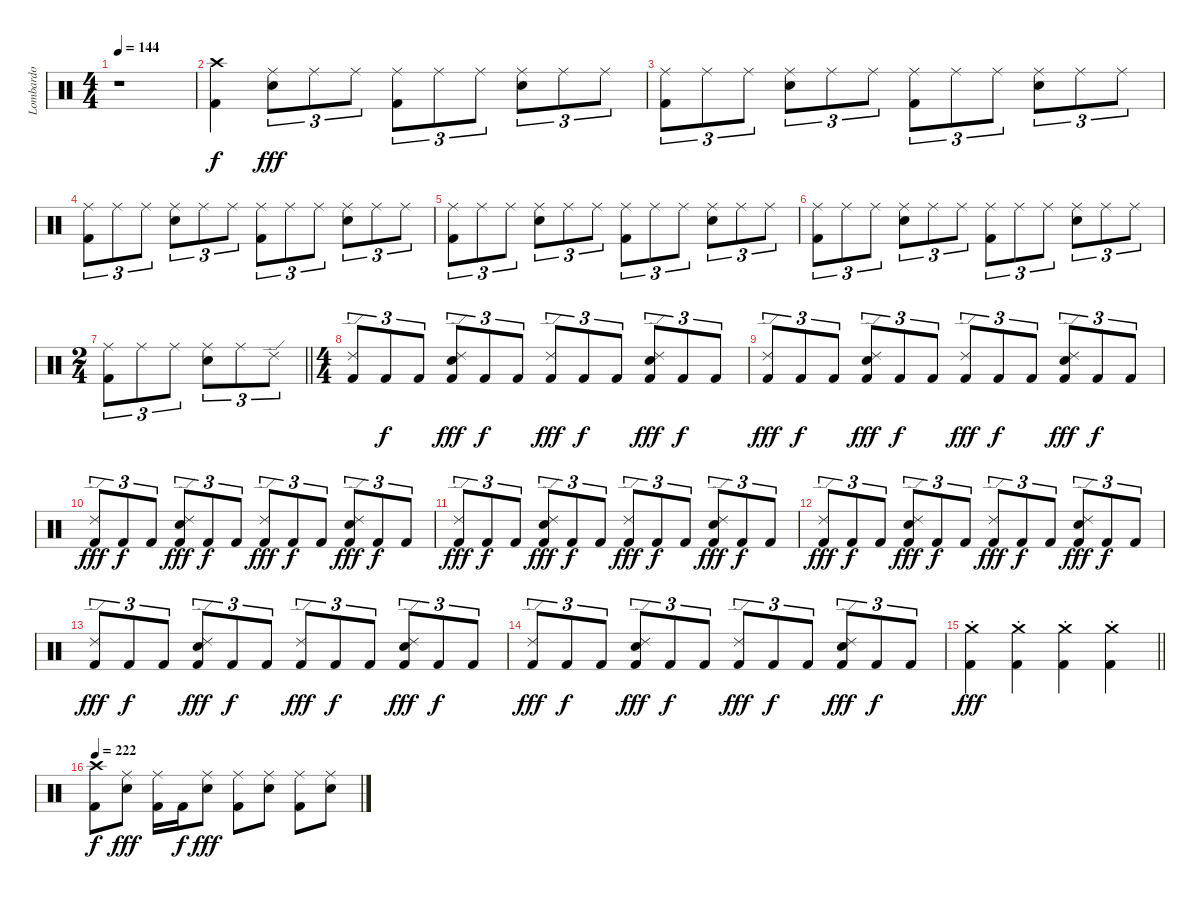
\track ("Lombardo" "Lombardo") {instrument percussion}
\staff {score}
\articulation defaults
\ts (4 4)
\tempo 144
\clef neutral
\ks c
r.1{dy f} |
("Crash high (hit)" "Kick (hit) 2").4 ("Ride (middle)" "Snare (hit) 2").8{tu (3 2) dy fff} "Ride (middle)".8{tu (3 2)} "Ride (middle)".8{tu (3 2)} ("Ride (middle)" "Kick (hit) 2").8{tu (3 2)} "Ride (middle)".8{tu (3 2)} "Ride (middle)".8{tu (3 2)} ("Ride (middle)" "Snare (hit) 2").8{tu (3 2)} "Ride (middle)".8{tu (3 2)} "Ride (middle)".8{tu (3 2)} |
("Ride (middle)" "Kick (hit) 2").8{tu (3 2)} "Ride (middle)".8{tu (3 2)} "Ride (middle)".8{tu (3 2)} ("Ride (middle)" "Snare (hit) 2").8{tu (3 2)} "Ride (middle)".8{tu (3 2)} "Ride (middle)".8{tu (3 2)} ("Ride (middle)" "Kick (hit) 2").8{tu (3 2)} "Ride (middle)".8{tu (3 2)} "Ride (middle)".8{tu (3 2)} ("Ride (middle)" "Snare (hit) 2").8{tu (3 2)} "Ride (middle)".8{tu (3 2)} "Ride (middle)".8{tu (3 2)} |
("Ride (middle)" "Kick (hit) 2").8{tu (3 2)} "Ride (middle)".8{tu (3 2)} "Ride (middle)".8{tu (3 2)} ("Ride (middle)" "Snare (hit) 2").8{tu (3 2)} "Ride (middle)".8{tu (3 2)} "Ride (middle)".8{tu (3 2)} ("Ride (middle)" "Kick (hit) 2").8{tu (3 2)} "Ride (middle)".8{tu (3 2)} "Ride (middle)".8{tu (3 2)} ("Ride (middle)" "Snare (hit) 2").8{tu (3 2)} "Ride (middle)".8{tu (3 2)} "Ride (middle)".8{tu (3 2)} |
("Ride (middle)" "Kick (hit) 2").8{tu (3 2)} "Ride (middle)".8{tu (3 2)} "Ride (middle)".8{tu (3 2)} ("Ride (middle)" "Snare (hit) 2").8{tu (3 2)} "Ride (middle)".8{tu (3 2)} "Ride (middle)".8{tu (3 2)} ("Ride (middle)" "Kick (hit) 2").8{tu (3 2)} "Ride (middle)".8{tu (3 2)} "Ride (middle)".8{tu (3 2)} ("Ride (middle)" "Snare (hit) 2").8{tu (3 2)} "Ride (middle)".8{tu (3 2)} "Ride (middle)".8{tu (3 2)} |
("Ride (middle)" "Kick (hit) 2").8{tu (3 2)} "Ride (middle)".8{tu (3 2)} "Ride (middle)".8{tu (3 2)} ("Ride (middle)" "Snare (hit) 2").8{tu (3 2)} "Ride (middle)".8{tu (3 2)} "Ride (middle)".8{tu (3 2)} ("Ride (middle)" "Kick (hit) 2").8{tu (3 2)} "Ride (middle)".8{tu (3 2)} "Ride (middle)".8{tu (3 2)} ("Ride (middle)" "Snare (hit) 2").8{tu (3 2)} "Ride (middle)".8{tu (3 2)} "Ride (middle)".8{tu (3 2)} |
\ts (2 4)
\barLineRight lightlight
("Ride (middle)" "Kick (hit) 2").8{tu (3 2)} "Ride (middle)".8{tu (3 2)} "Ride (middle)".8{tu (3 2)} ("Ride (middle)" "Snare (hit) 2").8{tu (3 2)} "Ride (middle)".8{tu (3 2)} "Ride (edge) 2".8{tu (3 2)} |
\ts (4 4)
("Ride (edge) 2" "Kick (hit) 2").8{tu (3 2)} "Kick (hit) 2".8{tu (3 2) dy f} "Kick (hit) 2".8{tu (3 2)} ("Ride (edge) 2" "Snare (hit) 2" "Kick (hit) 2").8{tu (3 2) dy fff} "Kick (hit) 2".8{tu (3 2) dy f} "Kick (hit) 2".8{tu (3 2)} ("Ride (edge) 2" "Kick (hit) 2").8{tu (3 2) dy fff} "Kick (hit) 2".8{tu (3 2) dy f} "Kick (hit) 2".8{tu (3 2)} ("Ride (edge) 2" "Snare (hit) 2" "Kick (hit) 2").8{tu (3 2) dy fff} "Kick (hit) 2".8{tu (3 2) dy f} "Kick (hit) 2".8{tu (3 2)} |
("Ride (edge) 2" "Kick (hit) 2").8{tu (3 2) dy fff} "Kick (hit) 2".8{tu (3 2) dy f} "Kick (hit) 2".8{tu (3 2)} ("Ride (edge) 2" "Snare (hit) 2" "Kick (hit) 2").8{tu (3 2) dy fff} "Kick (hit) 2".8{tu (3 2) dy f} "Kick (hit) 2".8{tu (3 2)} ("Ride (edge) 2" "Kick (hit) 2").8{tu (3 2) dy fff} "Kick (hit) 2".8{tu (3 2) dy f} "Kick (hit) 2".8{tu (3 2)} ("Ride (edge) 2" "Snare (hit) 2" "Kick (hit) 2").8{tu (3 2) dy fff} "Kick (hit) 2".8{tu (3 2) dy f} "Kick (hit) 2".8{tu (3 2)} |
("Ride (edge) 2" "Kick (hit) 2").8{tu (3 2) dy fff} "Kick (hit) 2".8{tu (3 2) dy f} "Kick (hit) 2".8{tu (3 2)} ("Ride (edge) 2" "Snare (hit) 2" "Kick (hit) 2").8{tu (3 2) dy fff} "Kick (hit) 2".8{tu (3 2) dy f} "Kick (hit) 2".8{tu (3 2)} ("Ride (edge) 2" "Kick (hit) 2").8{tu (3 2) dy fff} "Kick (hit) 2".8{tu (3 2) dy f} "Kick (hit) 2".8{tu (3 2)} ("Ride (edge) 2" "Snare (hit) 2" "Kick (hit) 2").8{tu (3 2) dy fff} "Kick (hit) 2".8{tu (3 2) dy f} "Kick (hit) 2".8{tu (3 2)} |
("Ride (edge) 2" "Kick (hit) 2").8{tu (3 2) dy fff} "Kick (hit) 2".8{tu (3 2) dy f} "Kick (hit) 2".8{tu (3 2)} ("Ride (edge) 2" "Snare (hit) 2" "Kick (hit) 2").8{tu (3 2) dy fff} "Kick (hit) 2".8{tu (3 2) dy f} "Kick (hit) 2".8{tu (3 2)} ("Ride (edge) 2" "Kick (hit) 2").8{tu (3 2) dy fff} "Kick (hit) 2".8{tu (3 2) dy f} "Kick (hit) 2".8{tu (3 2)} ("Ride (edge) 2" "Snare (hit) 2" "Kick (hit) 2").8{tu (3 2) dy fff} "Kick (hit) 2".8{tu (3 2) dy f} "Kick (hit) 2".8{tu (3 2)} |
("Ride (edge) 2" "Kick (hit) 2").8{tu (3 2) dy fff} "Kick (hit) 2".8{tu (3 2) dy f} "Kick (hit) 2".8{tu (3 2)} ("Ride (edge) 2" "Snare (hit) 2" "Kick (hit) 2").8{tu (3 2) dy fff} "Kick (hit) 2".8{tu (3 2) dy f} "Kick (hit) 2".8{tu (3 2)} ("Ride (edge) 2" "Kick (hit) 2").8{tu (3 2) dy fff} "Kick (hit) 2".8{tu (3 2) dy f} "Kick (hit) 2".8{tu (3 2)} ("Ride (edge) 2" "Snare (hit) 2" "Kick (hit) 2").8{tu (3 2) dy fff} "Kick (hit) 2".8{tu (3 2) dy f} "Kick (hit) 2".8{tu (3 2)} |
("Ride (edge) 2" "Kick (hit) 2").8{tu (3 2) dy fff} "Kick (hit) 2".8{tu (3 2) dy f} "Kick (hit) 2".8{tu (3 2)} ("Ride (edge) 2" "Snare (hit) 2" "Kick (hit) 2").8{tu (3 2) dy fff} "Kick (hit) 2".8{tu (3 2) dy f} "Kick (hit) 2".8{tu (3 2)} ("Ride (edge) 2" "Kick (hit) 2").8{tu (3 2) dy fff} "Kick (hit) 2".8{tu (3 2) dy f} "Kick (hit) 2".8{tu (3 2)} ("Ride (edge) 2" "Snare (hit) 2" "Kick (hit) 2").8{tu (3 2) dy fff} "Kick (hit) 2".8{tu (3 2) dy f} "Kick (hit) 2".8{tu (3 2)} |
("Ride (edge) 2" "Kick (hit) 2").8{tu (3 2) dy fff} "Kick (hit) 2".8{tu (3 2) dy f} "Kick (hit) 2".8{tu (3 2)} ("Ride (edge) 2" "Snare (hit) 2" "Kick (hit) 2").8{tu (3 2) dy fff} "Kick (hit) 2".8{tu (3 2) dy f} "Kick (hit) 2".8{tu (3 2)} ("Ride (edge) 2" "Kick (hit) 2").8{tu (3 2) dy fff} "Kick (hit) 2".8{tu (3 2) dy f} "Kick (hit) 2".8{tu (3 2)} ("Ride (edge) 2" "Snare (hit) 2" "Kick (hit) 2").8{tu (3 2) dy fff} "Kick (hit) 2".8{tu (3 2) dy f} "Kick (hit) 2".8{tu (3 2)} |
\barLineRight lightlight
("Crash medium (hit)"{st} "Kick (hit) 2").4{dy fff} ("Crash medium (hit)"{st} "Kick (hit) 2").4 ("Crash medium (hit)"{st} "Kick (hit) 2").4 ("Crash medium (hit)"{st} "Kick (hit) 2").4 |
\tempo 222
("Crash high (hit)" "Kick (hit) 2").8{dy f} ("Ride (middle)" "Snare (hit) 2").8{dy fff} ("Ride (middle)" "Kick (hit) 2").16 "Kick (hit) 2".16{dy f} ("Ride (middle)" "Snare (hit) 2").8{dy fff} ("Ride (middle)" "Kick (hit) 2").8 ("Ride (middle)" "Snare (hit) 2").8 ("Ride (middle)" "Kick (hit) 2").8 ("Ride (middle)" "Snare (hit) 2").8
